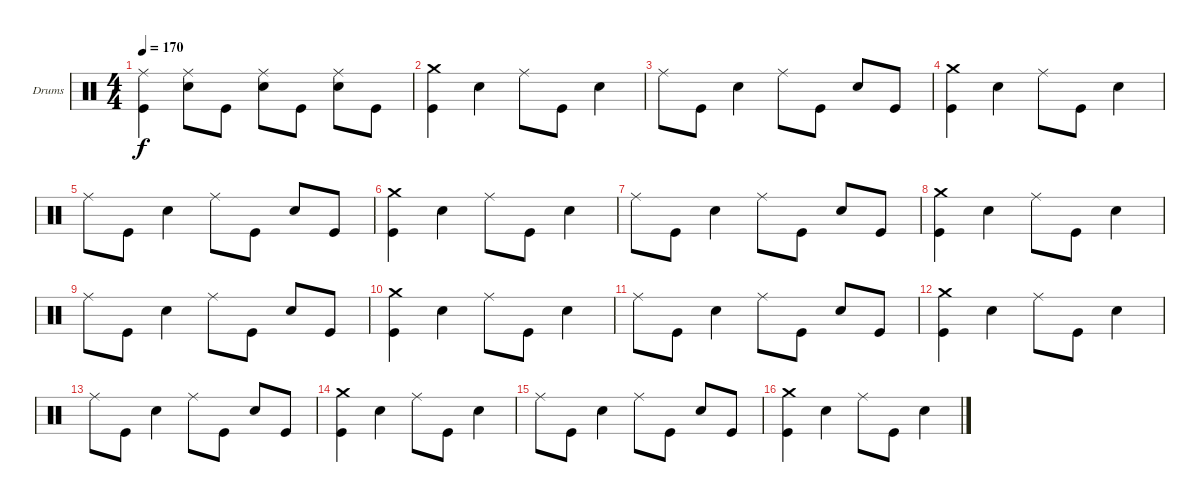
\bracketExtendMode groupsimilarinstruments
\firstSystemTrackNameOrientation horizontal
\otherSystemsTrackNameOrientation horizontal
\track ("Drumkit" "Drums") {instrument percussion}
\staff {score}
\articulation defaults
\ts (4 4)
\tempo 170
\clef neutral
\ks c
("Ride (middle)" "Kick (hit)").4{dy f} ("Ride (middle)" "Snare (hit) 2").8 "Kick (hit)".8 ("Ride (middle)" "Snare (hit) 2").8 "Kick (hit)".8 ("Ride (middle)" "Snare (hit) 2").8 "Kick (hit)".8 |
("Crash medium (hit)" "Kick (hit)").4 "Snare (hit) 2".4 "Ride (middle)".8 "Kick (hit)".8 "Snare (hit) 2".4 |
"Ride (middle)".8 "Kick (hit)".8 "Snare (hit) 2".4 "Ride (middle)".8 "Kick (hit)".8 "Snare (hit) 2".8 "Kick (hit)".8 |
("Crash medium (hit)" "Kick (hit)").4 "Snare (hit) 2".4 "Ride (middle)".8 "Kick (hit)".8 "Snare (hit) 2".4 |
"Ride (middle)".8 "Kick (hit)".8 "Snare (hit) 2".4 "Ride (middle)".8 "Kick (hit)".8 "Snare (hit) 2".8 "Kick (hit)".8 |
("Crash medium (hit)" "Kick (hit)").4 "Snare (hit) 2".4 "Ride (middle)".8 "Kick (hit)".8 "Snare (hit) 2".4 |
"Ride (middle)".8 "Kick (hit)".8 "Snare (hit) 2".4 "Ride (middle)".8 "Kick (hit)".8 "Snare (hit) 2".8 "Kick (hit)".8 |
("Crash medium (hit)" "Kick (hit)").4 "Snare (hit) 2".4 "Ride (middle)".8 "Kick (hit)".8 "Snare (hit) 2".4 |
"Ride (middle)".8 "Kick (hit)".8 "Snare (hit) 2".4 "Ride (middle)".8 "Kick (hit)".8 "Snare (hit) 2".8 "Kick (hit)".8 |
("Crash medium (hit)" "Kick (hit)").4 "Snare (hit) 2".4 "Ride (middle)".8 "Kick (hit)".8 "Snare (hit) 2".4 |
"Ride (middle)".8 "Kick (hit)".8 "Snare (hit) 2".4 "Ride (middle)".8 "Kick (hit)".8 "Snare (hit) 2".8 "Kick (hit)".8 |
("Crash medium (hit)" "Kick (hit)").4 "Snare (hit) 2".4 "Ride (middle)".8 "Kick (hit)".8 "Snare (hit) 2".4 |
"Ride (middle)".8 "Kick (hit)".8 "Snare (hit) 2".4 "Ride (middle)".8 "Kick (hit)".8 "Snare (hit) 2".8 "Kick (hit)".8 |
("Crash medium (hit)" "Kick (hit)").4 "Snare (hit) 2".4 "Ride (middle)".8 "Kick (hit)".8 "Snare (hit) 2".4 |
"Ride (middle)".8 "Kick (hit)".8 "Snare (hit) 2".4 "Ride (middle)".8 "Kick (hit)".8 "Snare (hit) 2".8 "Kick (hit)".8 |
("Crash medium (hit)" "Kick (hit)").4 "Snare (hit) 2".4 "Ride (middle)".8 "Kick (hit)".8 "Snare (hit) 2".4
